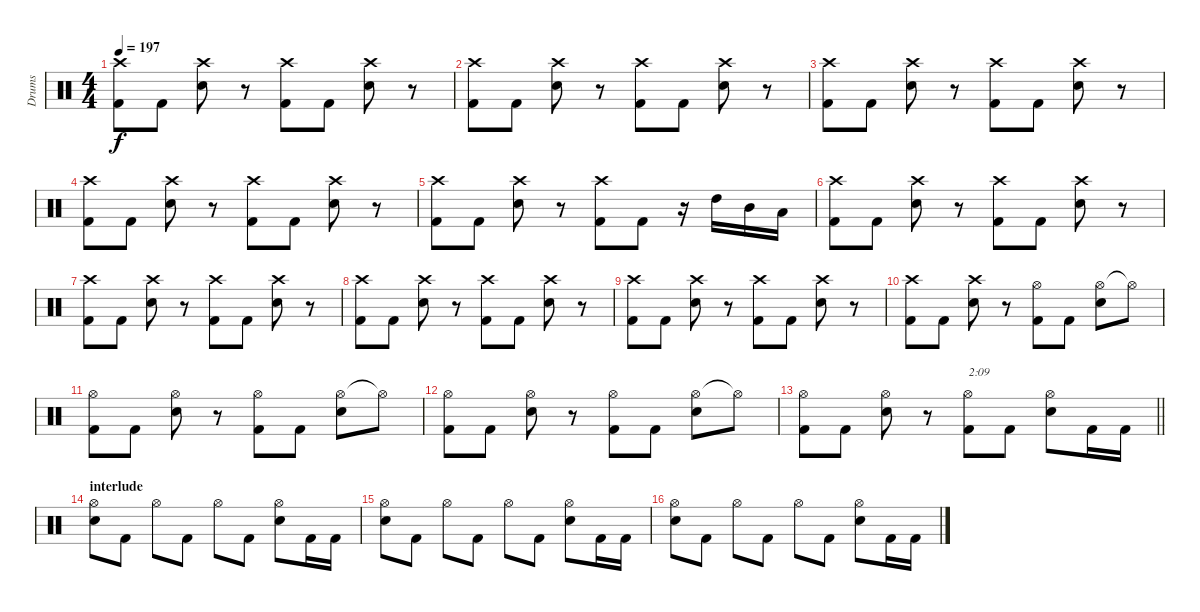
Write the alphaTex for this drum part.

\track ("Drums" "Drums") {instrument percussion}
\staff {score}
\articulation defaults
\ts (4 4)
\tempo 197
\clef neutral
\ks c
("Crash high (hit)" "Kick (hit) 2").8{dy f} "Kick (hit) 2".8 ("Crash high (hit)" "Snare (hit) 2").8 r.8 ("Crash high (hit)" "Kick (hit) 2").8 "Kick (hit) 2".8 ("Crash high (hit)" "Snare (hit) 2").8 r.8 |
("Crash high (hit)" "Kick (hit) 2").8 "Kick (hit) 2".8 ("Crash high (hit)" "Snare (hit) 2").8 r.8 ("Crash high (hit)" "Kick (hit) 2").8 "Kick (hit) 2".8 ("Crash high (hit)" "Snare (hit) 2").8 r.8 |
("Crash high (hit)" "Kick (hit) 2").8 "Kick (hit) 2".8 ("Crash high (hit)" "Snare (hit) 2").8 r.8 ("Crash high (hit)" "Kick (hit) 2").8 "Kick (hit) 2".8 ("Crash high (hit)" "Snare (hit) 2").8 r.8 |
("Crash high (hit)" "Kick (hit) 2").8 "Kick (hit) 2".8 ("Crash high (hit)" "Snare (hit) 2").8 r.8 ("Crash high (hit)" "Kick (hit) 2").8 "Kick (hit) 2".8 ("Crash high (hit)" "Snare (hit) 2").8 r.8 |
("Crash high (hit)" "Kick (hit) 2").8 "Kick (hit) 2".8 ("Crash high (hit)" "Snare (hit) 2").8 r.8 ("Crash high (hit)" "Kick (hit) 2").8 "Kick (hit) 2".8 r.16 "High Tom (hit)".16 "Mid Tom (hit)".16 "Low Tom (hit)".16 |
("Crash high (hit)" "Kick (hit) 2").8 "Kick (hit) 2".8 ("Crash high (hit)" "Snare (hit) 2").8 r.8 ("Crash high (hit)" "Kick (hit) 2").8 "Kick (hit) 2".8 ("Crash high (hit)" "Snare (hit) 2").8 r.8 |
("Crash high (hit)" "Kick (hit) 2").8 "Kick (hit) 2".8 ("Crash high (hit)" "Snare (hit) 2").8 r.8 ("Crash high (hit)" "Kick (hit) 2").8 "Kick (hit) 2".8 ("Crash high (hit)" "Snare (hit) 2").8 r.8 |
("Crash high (hit)" "Kick (hit) 2").8 "Kick (hit) 2".8 ("Crash high (hit)" "Snare (hit) 2").8 r.8 ("Crash high (hit)" "Kick (hit) 2").8 "Kick (hit) 2".8 ("Crash high (hit)" "Snare (hit) 2").8 r.8 |
("Crash high (hit)" "Kick (hit) 2").8 "Kick (hit) 2".8 ("Crash high (hit)" "Snare (hit) 2").8 r.8 ("Crash high (hit)" "Kick (hit) 2").8 "Kick (hit) 2".8 ("Crash high (hit)" "Snare (hit) 2").8 r.8 |
("Crash high (hit)" "Kick (hit) 2").8 "Kick (hit) 2".8 ("Crash high (hit)" "Snare (hit) 2").8 r.8 ("Hi-Hat (open)" "Kick (hit) 2").8 "Kick (hit) 2".8 ("Hi-Hat (open)" "Snare (hit) 2").8 "Hi-Hat (open)"{t}.8 |
("Hi-Hat (open)" "Kick (hit) 2").8 "Kick (hit) 2".8 ("Hi-Hat (open)" "Snare (hit) 2").8 r.8 ("Hi-Hat (open)" "Kick (hit) 2").8 "Kick (hit) 2".8 ("Hi-Hat (open)" "Snare (hit) 2").8 "Hi-Hat (open)"{t}.8 |
("Hi-Hat (open)" "Kick (hit) 2").8 "Kick (hit) 2".8 ("Hi-Hat (open)" "Snare (hit) 2").8 r.8 ("Hi-Hat (open)" "Kick (hit) 2").8 "Kick (hit) 2".8 ("Hi-Hat (open)" "Snare (hit) 2").8 "Hi-Hat (open)"{t}.8 |
\barLineRight lightlight
("Hi-Hat (open)" "Kick (hit) 2").8 "Kick (hit) 2".8 ("Hi-Hat (open)" "Snare (hit) 2").8 r.8 ("Hi-Hat (open)" "Kick (hit) 2").8{txt "2:09"} "Kick (hit) 2".8 ("Hi-Hat (open)" "Snare (hit) 2").8 "Kick (hit) 2".16 "Kick (hit) 2".16 |
\section ("" "interlude")
("Hi-Hat (open)" "Snare (hit) 2").8 "Kick (hit) 2".8 "Hi-Hat (open)".8 "Kick (hit) 2".8 "Hi-Hat (open)".8 "Kick (hit) 2".8 ("Hi-Hat (open)" "Snare (hit) 2").8 "Kick (hit) 2".16 "Kick (hit) 2".16 |
("Hi-Hat (open)" "Snare (hit) 2").8 "Kick (hit) 2".8 "Hi-Hat (open)".8 "Kick (hit) 2".8 "Hi-Hat (open)".8 "Kick (hit) 2".8 ("Hi-Hat (open)" "Snare (hit) 2").8 "Kick (hit) 2".16 "Kick (hit) 2".16 |
("Hi-Hat (open)" "Snare (hit) 2").8 "Kick (hit) 2".8 "Hi-Hat (open)".8 "Kick (hit) 2".8 "Hi-Hat (open)".8 "Kick (hit) 2".8 ("Hi-Hat (open)" "Snare (hit) 2").8 "Kick (hit) 2".16 "Kick (hit) 2".16
